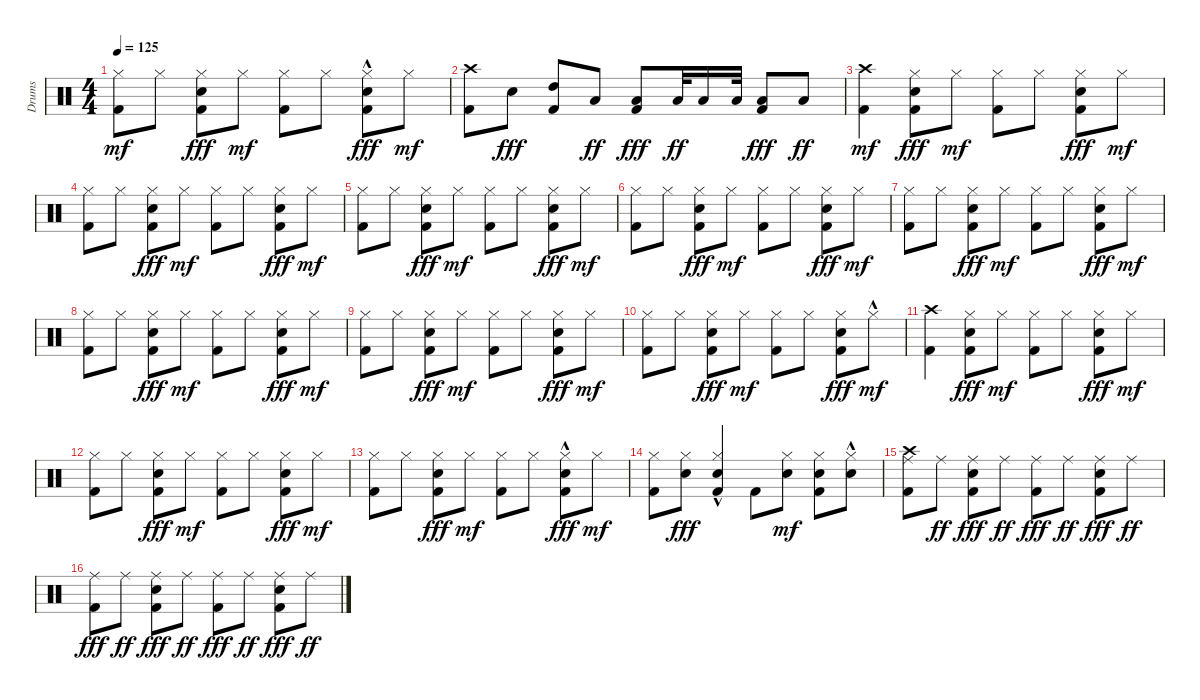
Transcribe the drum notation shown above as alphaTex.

\track ("Drums" "Drums") {instrument percussion}
\staff {score}
\articulation defaults
\ts (4 4)
\tempo 125
\clef neutral
\ks c
("Kick (hit) 2" "Hi-Hat (closed)").8{dy mf} "Hi-Hat (closed)".8 ("Snare (hit) 2" "Kick (hit) 2" "Hi-Hat (closed)").8{dy fff} "Hi-Hat (closed)".8{dy mf} ("Kick (hit) 2" "Hi-Hat (closed)").8 "Hi-Hat (closed)".8 ("Snare (hit) 2"{hac} "Kick (hit) 2" "Hi-Hat (closed)").8{dy fff} "Hi-Hat (closed)".8{dy mf} |
("Kick (hit) 2" "Crash high (hit)").8 "Snare (hit) 2".8{dy fff} ("High Tom (hit)" "Kick (hit) 2").8 "Low Tom (hit)".8{dy ff} ("Low Tom (hit)" "Kick (hit) 2").8{dy fff} "Low Floor Tom (hit)".32{dy ff} "Low Floor Tom (hit)".16 "Low Floor Tom (hit)".32 ("Low Floor Tom (hit)" "Kick (hit) 2").8{dy fff} "Low Floor Tom (hit)".8{dy ff} |
("Kick (hit) 2" "Crash high (hit)").4{dy mf} ("Snare (hit) 2" "Kick (hit) 2" "Hi-Hat (closed)").8{dy fff} "Hi-Hat (closed)".8{dy mf} ("Kick (hit) 2" "Hi-Hat (closed)").8 "Hi-Hat (closed)".8 ("Snare (hit) 2" "Kick (hit) 2" "Hi-Hat (closed)").8{dy fff} "Hi-Hat (closed)".8{dy mf} |
("Kick (hit) 2" "Hi-Hat (closed)").8 "Hi-Hat (closed)".8 ("Snare (hit) 2" "Kick (hit) 2" "Hi-Hat (closed)").8{dy fff} "Hi-Hat (closed)".8{dy mf} ("Kick (hit) 2" "Hi-Hat (closed)").8 "Hi-Hat (closed)".8 ("Snare (hit) 2" "Kick (hit) 2" "Hi-Hat (closed)").8{dy fff} "Hi-Hat (closed)".8{dy mf} |
("Kick (hit) 2" "Hi-Hat (closed)").8 "Hi-Hat (closed)".8 ("Snare (hit) 2" "Kick (hit) 2" "Hi-Hat (closed)").8{dy fff} "Hi-Hat (closed)".8{dy mf} ("Kick (hit) 2" "Hi-Hat (closed)").8 "Hi-Hat (closed)".8 ("Snare (hit) 2" "Kick (hit) 2" "Hi-Hat (closed)").8{dy fff} "Hi-Hat (closed)".8{dy mf} |
("Kick (hit) 2" "Hi-Hat (closed)").8 "Hi-Hat (closed)".8 ("Snare (hit) 2" "Kick (hit) 2" "Hi-Hat (closed)").8{dy fff} "Hi-Hat (closed)".8{dy mf} ("Kick (hit) 2" "Hi-Hat (closed)").8 "Hi-Hat (closed)".8 ("Snare (hit) 2" "Kick (hit) 2" "Hi-Hat (closed)").8{dy fff} "Hi-Hat (closed)".8{dy mf} |
("Kick (hit) 2" "Hi-Hat (closed)").8 "Hi-Hat (closed)".8 ("Snare (hit) 2" "Kick (hit) 2" "Hi-Hat (closed)").8{dy fff} "Hi-Hat (closed)".8{dy mf} ("Kick (hit) 2" "Hi-Hat (closed)").8 "Hi-Hat (closed)".8 ("Snare (hit) 2" "Kick (hit) 2" "Hi-Hat (closed)").8{dy fff} "Hi-Hat (closed)".8{dy mf} |
("Kick (hit) 2" "Hi-Hat (closed)").8 "Hi-Hat (closed)".8 ("Snare (hit) 2" "Kick (hit) 2" "Hi-Hat (closed)").8{dy fff} "Hi-Hat (closed)".8{dy mf} ("Kick (hit) 2" "Hi-Hat (closed)").8 "Hi-Hat (closed)".8 ("Snare (hit) 2" "Kick (hit) 2" "Hi-Hat (closed)").8{dy fff} "Hi-Hat (closed)".8{dy mf} |
("Kick (hit) 2" "Hi-Hat (closed)").8 "Hi-Hat (closed)".8 ("Snare (hit) 2" "Kick (hit) 2" "Hi-Hat (closed)").8{dy fff} "Hi-Hat (closed)".8{dy mf} ("Kick (hit) 2" "Hi-Hat (closed)").8 "Hi-Hat (closed)".8 ("Snare (hit) 2" "Kick (hit) 2" "Hi-Hat (closed)").8{dy fff} "Hi-Hat (closed)".8{dy mf} |
("Kick (hit) 2" "Hi-Hat (closed)").8 "Hi-Hat (closed)".8 ("Snare (hit) 2" "Kick (hit) 2" "Hi-Hat (closed)").8{dy fff} "Hi-Hat (closed)".8{dy mf} ("Kick (hit) 2" "Hi-Hat (closed)").8 "Hi-Hat (closed)".8 ("Snare (hit) 2" "Kick (hit) 2" "Hi-Hat (closed)").8{dy fff} "Hi-Hat (closed)"{hac}.8{dy mf} |
("Kick (hit) 2" "Crash high (hit)").4 ("Snare (hit) 2" "Kick (hit) 2" "Hi-Hat (closed)").8{dy fff} "Hi-Hat (closed)".8{dy mf} ("Kick (hit) 2" "Hi-Hat (closed)").8 "Hi-Hat (closed)".8 ("Snare (hit) 2" "Kick (hit) 2" "Hi-Hat (closed)").8{dy fff} "Hi-Hat (closed)".8{dy mf} |
("Kick (hit) 2" "Hi-Hat (closed)").8 "Hi-Hat (closed)".8 ("Snare (hit) 2" "Kick (hit) 2" "Hi-Hat (closed)").8{dy fff} "Hi-Hat (closed)".8{dy mf} ("Kick (hit) 2" "Hi-Hat (closed)").8 "Hi-Hat (closed)".8 ("Snare (hit) 2" "Kick (hit) 2" "Hi-Hat (closed)").8{dy fff} "Hi-Hat (closed)".8{dy mf} |
("Kick (hit) 2" "Hi-Hat (closed)").8 "Hi-Hat (closed)".8 ("Snare (hit) 2" "Kick (hit) 2" "Hi-Hat (closed)").8{dy fff} "Hi-Hat (closed)".8{dy mf} ("Kick (hit) 2" "Hi-Hat (closed)").8 "Hi-Hat (closed)".8 ("Snare (hit) 2"{hac} "Kick (hit) 2" "Hi-Hat (closed)").8{dy fff} "Hi-Hat (closed)".8{dy mf} |
("Kick (hit) 2" "Hi-Hat (closed)").8 ("Snare (hit) 2" "Hi-Hat (closed)").8{dy fff} ("Snare (hit) 2"{hac} "Kick (hit) 2" "Hi-Hat (closed)"{hac}).4 "Kick (hit) 2".8 ("Snare (hit) 2" "Hi-Hat (closed)").8{dy mf} ("Snare (hit) 2" "Kick (hit) 2" "Hi-Hat (closed)").8 ("Snare (hit) 2"{hac} "Hi-Hat (closed)").8 |
("Ride (middle)" "Kick (hit) 2" "Crash high (hit)").8 "Ride (middle)".8{dy ff} ("Ride (middle)" "Snare (hit) 2" "Kick (hit) 2").8{dy fff} "Ride (middle)".8{dy ff} ("Ride (middle)" "Kick (hit) 2").8{dy fff} "Ride (middle)".8{dy ff} ("Ride (middle)" "Snare (hit) 2" "Kick (hit) 2").8{dy fff} "Ride (middle)".8{dy ff} |
("Ride (middle)" "Kick (hit) 2").8{dy fff} "Ride (middle)".8{dy ff} ("Ride (middle)" "Snare (hit) 2" "Kick (hit) 2").8{dy fff} "Ride (middle)".8{dy ff} ("Ride (middle)" "Kick (hit) 2").8{dy fff} "Ride (middle)".8{dy ff} ("Ride (middle)" "Snare (hit) 2" "Kick (hit) 2").8{dy fff} "Ride (middle)".8{dy ff}
